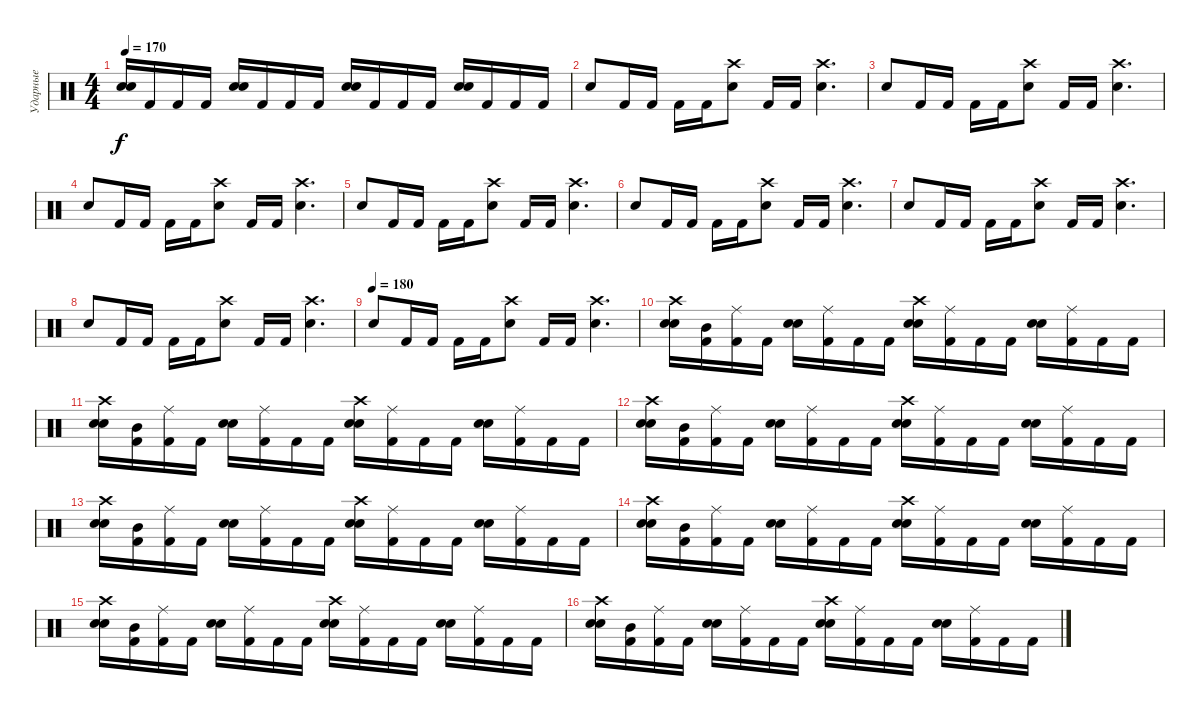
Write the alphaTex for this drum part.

\track ("Ударные" "Ударные") {instrument percussion}
\staff {score}
\articulation defaults
\ts (4 4)
\tempo 170
\clef neutral
\ks c
("Snare (hit) 2" "Snare (hit) 2").16{dy f} "Kick (hit) 2".16 "Kick (hit) 2".16 "Kick (hit) 2".16 ("Snare (hit) 2" "Snare (hit) 2").16 "Kick (hit) 2".16 "Kick (hit) 2".16 "Kick (hit) 2".16 ("Snare (hit) 2" "Snare (hit) 2").16 "Kick (hit) 2".16 "Kick (hit) 2".16 "Kick (hit) 2".16 ("Snare (hit) 2" "Snare (hit) 2").16 "Kick (hit) 2".16 "Kick (hit) 2".16 "Kick (hit) 2".16 |
"Snare (hit) 2".8 "Kick (hit) 2".16 "Kick (hit) 2".16 "Kick (hit) 2".16 "Kick (hit) 2".16 ("Electric Snare (hit)" "Crash high (hit)").8 "Kick (hit) 2".16 "Kick (hit) 2".16 ("Crash high (hit)" "Electric Snare (hit)").4{d} |
"Snare (hit) 2".8 "Kick (hit) 2".16 "Kick (hit) 2".16 "Kick (hit) 2".16 "Kick (hit) 2".16 ("Electric Snare (hit)" "Crash high (hit)").8 "Kick (hit) 2".16 "Kick (hit) 2".16 ("Crash high (hit)" "Electric Snare (hit)").4{d} |
"Snare (hit) 2".8 "Kick (hit) 2".16 "Kick (hit) 2".16 "Kick (hit) 2".16 "Kick (hit) 2".16 ("Electric Snare (hit)" "Crash high (hit)").8 "Kick (hit) 2".16 "Kick (hit) 2".16 ("Crash high (hit)" "Electric Snare (hit)").4{d} |
"Snare (hit) 2".8 "Kick (hit) 2".16 "Kick (hit) 2".16 "Kick (hit) 2".16 "Kick (hit) 2".16 ("Electric Snare (hit)" "Crash high (hit)").8 "Kick (hit) 2".16 "Kick (hit) 2".16 ("Crash high (hit)" "Electric Snare (hit)").4{d} |
"Snare (hit) 2".8 "Kick (hit) 2".16 "Kick (hit) 2".16 "Kick (hit) 2".16 "Kick (hit) 2".16 ("Electric Snare (hit)" "Crash high (hit)").8 "Kick (hit) 2".16 "Kick (hit) 2".16 ("Crash high (hit)" "Electric Snare (hit)").4{d} |
"Snare (hit) 2".8 "Kick (hit) 2".16 "Kick (hit) 2".16 "Kick (hit) 2".16 "Kick (hit) 2".16 ("Electric Snare (hit)" "Crash high (hit)").8 "Kick (hit) 2".16 "Kick (hit) 2".16 ("Crash high (hit)" "Electric Snare (hit)").4{d} |
"Snare (hit) 2".8 "Kick (hit) 2".16 "Kick (hit) 2".16 "Kick (hit) 2".16 "Kick (hit) 2".16 ("Electric Snare (hit)" "Crash high (hit)").8 "Kick (hit) 2".16 "Kick (hit) 2".16 ("Crash high (hit)" "Electric Snare (hit)").4{d} |
\tempo (180)
"Snare (hit) 2".8 "Kick (hit) 2".16 "Kick (hit) 2".16 "Kick (hit) 2".16 "Kick (hit) 2".16 ("Electric Snare (hit)" "Crash high (hit)").8 "Kick (hit) 2".16 "Kick (hit) 2".16 ("Crash high (hit)" "Electric Snare (hit)").4{d} |
("Snare (hit) 2" "Snare (hit) 2" "Crash high (hit)").16 ("Kick (hit) 2" "Mid Tom (hit)").16 ("Kick (hit) 2" "Ride (middle)").16 "Kick (hit) 2".16 ("Snare (hit) 2" "Snare (hit) 2").16 ("Kick (hit) 2" "Ride (middle)").16 "Kick (hit) 2".16 "Kick (hit) 2".16 ("Snare (hit) 2" "Snare (hit) 2" "Crash high (hit)").16 ("Kick (hit) 2" "Ride (middle)").16 "Kick (hit) 2".16 "Kick (hit) 2".16 ("Snare (hit) 2" "Snare (hit) 2").16 ("Kick (hit) 2" "Ride (middle)").16 "Kick (hit) 2".16 "Kick (hit) 2".16 |
("Snare (hit) 2" "Snare (hit) 2" "Crash high (hit)").16 ("Kick (hit) 2" "Mid Tom (hit)").16 ("Kick (hit) 2" "Ride (middle)").16 "Kick (hit) 2".16 ("Snare (hit) 2" "Snare (hit) 2").16 ("Kick (hit) 2" "Ride (middle)").16 "Kick (hit) 2".16 "Kick (hit) 2".16 ("Snare (hit) 2" "Snare (hit) 2" "Crash high (hit)").16 ("Kick (hit) 2" "Ride (middle)").16 "Kick (hit) 2".16 "Kick (hit) 2".16 ("Snare (hit) 2" "Snare (hit) 2").16 ("Kick (hit) 2" "Ride (middle)").16 "Kick (hit) 2".16 "Kick (hit) 2".16 |
("Snare (hit) 2" "Snare (hit) 2" "Crash high (hit)").16 ("Kick (hit) 2" "Mid Tom (hit)").16 ("Kick (hit) 2" "Ride (middle)").16 "Kick (hit) 2".16 ("Snare (hit) 2" "Snare (hit) 2").16 ("Kick (hit) 2" "Ride (middle)").16 "Kick (hit) 2".16 "Kick (hit) 2".16 ("Snare (hit) 2" "Snare (hit) 2" "Crash high (hit)").16 ("Kick (hit) 2" "Ride (middle)").16 "Kick (hit) 2".16 "Kick (hit) 2".16 ("Snare (hit) 2" "Snare (hit) 2").16 ("Kick (hit) 2" "Ride (middle)").16 "Kick (hit) 2".16 "Kick (hit) 2".16 |
("Snare (hit) 2" "Snare (hit) 2" "Crash high (hit)").16 ("Kick (hit) 2" "Mid Tom (hit)").16 ("Kick (hit) 2" "Ride (middle)").16 "Kick (hit) 2".16 ("Snare (hit) 2" "Snare (hit) 2").16 ("Kick (hit) 2" "Ride (middle)").16 "Kick (hit) 2".16 "Kick (hit) 2".16 ("Snare (hit) 2" "Snare (hit) 2" "Crash high (hit)").16 ("Kick (hit) 2" "Ride (middle)").16 "Kick (hit) 2".16 "Kick (hit) 2".16 ("Snare (hit) 2" "Snare (hit) 2").16 ("Kick (hit) 2" "Ride (middle)").16 "Kick (hit) 2".16 "Kick (hit) 2".16 |
("Snare (hit) 2" "Snare (hit) 2" "Crash high (hit)").16 ("Kick (hit) 2" "Mid Tom (hit)").16 ("Kick (hit) 2" "Ride (middle)").16 "Kick (hit) 2".16 ("Snare (hit) 2" "Snare (hit) 2").16 ("Kick (hit) 2" "Ride (middle)").16 "Kick (hit) 2".16 "Kick (hit) 2".16 ("Snare (hit) 2" "Snare (hit) 2" "Crash high (hit)").16 ("Kick (hit) 2" "Ride (middle)").16 "Kick (hit) 2".16 "Kick (hit) 2".16 ("Snare (hit) 2" "Snare (hit) 2").16 ("Kick (hit) 2" "Ride (middle)").16 "Kick (hit) 2".16 "Kick (hit) 2".16 |
("Snare (hit) 2" "Snare (hit) 2" "Crash high (hit)").16 ("Kick (hit) 2" "Mid Tom (hit)").16 ("Kick (hit) 2" "Ride (middle)").16 "Kick (hit) 2".16 ("Snare (hit) 2" "Snare (hit) 2").16 ("Kick (hit) 2" "Ride (middle)").16 "Kick (hit) 2".16 "Kick (hit) 2".16 ("Snare (hit) 2" "Snare (hit) 2" "Crash high (hit)").16 ("Kick (hit) 2" "Ride (middle)").16 "Kick (hit) 2".16 "Kick (hit) 2".16 ("Snare (hit) 2" "Snare (hit) 2").16 ("Kick (hit) 2" "Ride (middle)").16 "Kick (hit) 2".16 "Kick (hit) 2".16 |
("Snare (hit) 2" "Snare (hit) 2" "Crash high (hit)").16 ("Kick (hit) 2" "Mid Tom (hit)").16 ("Kick (hit) 2" "Ride (middle)").16 "Kick (hit) 2".16 ("Snare (hit) 2" "Snare (hit) 2").16 ("Kick (hit) 2" "Ride (middle)").16 "Kick (hit) 2".16 "Kick (hit) 2".16 ("Snare (hit) 2" "Snare (hit) 2" "Crash high (hit)").16 ("Kick (hit) 2" "Ride (middle)").16 "Kick (hit) 2".16 "Kick (hit) 2".16 ("Snare (hit) 2" "Snare (hit) 2").16 ("Kick (hit) 2" "Ride (middle)").16 "Kick (hit) 2".16 "Kick (hit) 2".16
